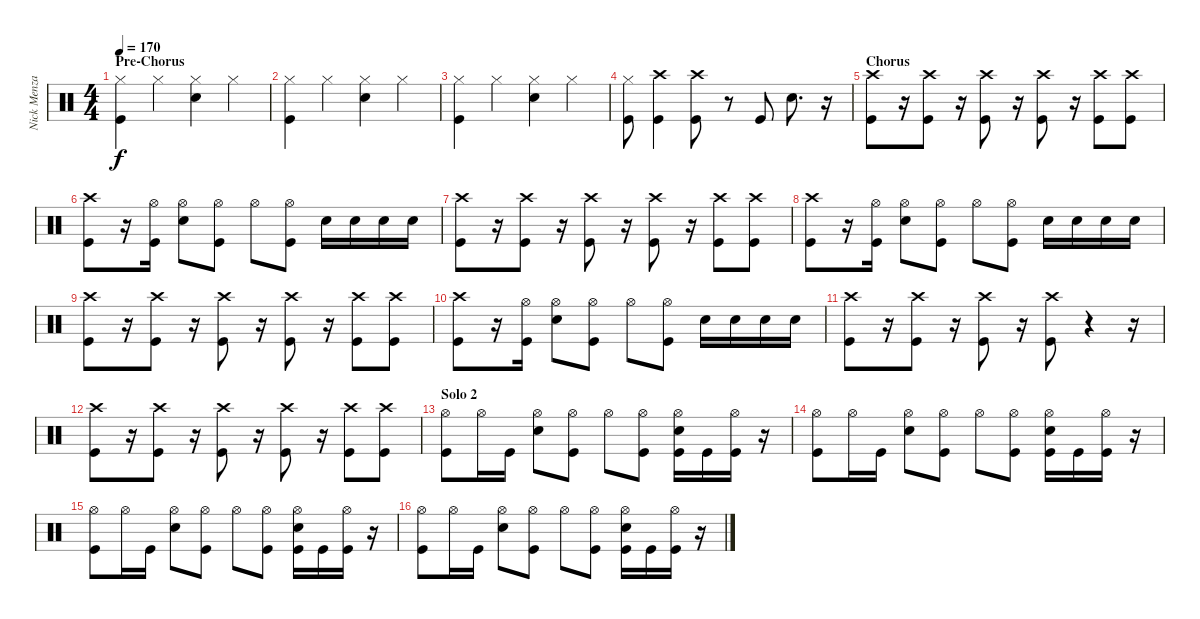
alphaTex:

\track ("Nick Menza" "Nick Menza") {instrument percussion}
\staff {score}
\articulation defaults
\ts (4 4)
\section ("" "Pre-Chorus")
\tempo 170
\clef neutral
\ks c
("Hi-Hat (closed)" "Kick (hit)").4{dy f} "Hi-Hat (closed)".4 ("Hi-Hat (closed)" "Snare (hit) 2").4 "Hi-Hat (closed)".4 |
("Hi-Hat (closed)" "Kick (hit)").4 "Hi-Hat (closed)".4 ("Hi-Hat (closed)" "Snare (hit) 2").4 "Hi-Hat (closed)".4 |
("Hi-Hat (closed)" "Kick (hit)").4 "Hi-Hat (closed)".4 ("Hi-Hat (closed)" "Snare (hit) 2").4 "Hi-Hat (closed)".4 |
("Hi-Hat (closed)" "Kick (hit)").8 ("Crash high (hit)" "Kick (hit)").4 ("Crash high (hit)" "Kick (hit)").8 r.8 "Kick (hit)".8 "Snare (hit) 2".8{d} r.16 |
\section ("" "Chorus")
("Crash high (hit)" "Kick (hit)").8 r.16 ("Crash high (hit)" "Kick (hit)").8 r.16 ("Crash high (hit)" "Kick (hit)").8 r.16 ("Crash high (hit)" "Kick (hit)").8 r.16 ("Crash high (hit)" "Kick (hit)").8 ("Crash high (hit)" "Kick (hit)").8 |
("Crash high (hit)" "Kick (hit)").8 r.16 ("Hi-Hat (open)" "Kick (hit)").16 ("Hi-Hat (open)" "Snare (hit) 2").8 ("Hi-Hat (open)" "Kick (hit)").8 "Hi-Hat (open)".8 ("Hi-Hat (open)" "Kick (hit)").8 "Snare (hit) 2".16 "Snare (hit) 2".16 "Snare (hit) 2".16 "Snare (hit) 2".16 |
("Crash high (hit)" "Kick (hit)").8 r.16 ("Crash high (hit)" "Kick (hit)").8 r.16 ("Crash high (hit)" "Kick (hit)").8 r.16 ("Crash high (hit)" "Kick (hit)").8 r.16 ("Crash high (hit)" "Kick (hit)").8 ("Crash high (hit)" "Kick (hit)").8 |
("Crash high (hit)" "Kick (hit)").8 r.16 ("Hi-Hat (open)" "Kick (hit)").16 ("Hi-Hat (open)" "Snare (hit) 2").8 ("Hi-Hat (open)" "Kick (hit)").8 "Hi-Hat (open)".8 ("Hi-Hat (open)" "Kick (hit)").8 "Snare (hit) 2".16 "Snare (hit) 2".16 "Snare (hit) 2".16 "Snare (hit) 2".16 |
("Crash high (hit)" "Kick (hit)").8 r.16 ("Crash high (hit)" "Kick (hit)").8 r.16 ("Crash high (hit)" "Kick (hit)").8 r.16 ("Crash high (hit)" "Kick (hit)").8 r.16 ("Crash high (hit)" "Kick (hit)").8 ("Crash high (hit)" "Kick (hit)").8 |
("Crash high (hit)" "Kick (hit)").8 r.16 ("Hi-Hat (open)" "Kick (hit)").16 ("Hi-Hat (open)" "Snare (hit) 2").8 ("Hi-Hat (open)" "Kick (hit)").8 "Hi-Hat (open)".8 ("Hi-Hat (open)" "Kick (hit)").8 "Snare (hit) 2".16 "Snare (hit) 2".16 "Snare (hit) 2".16 "Snare (hit) 2".16 |
("Crash high (hit)" "Kick (hit)").8 r.16 ("Crash high (hit)" "Kick (hit)").8 r.16 ("Crash high (hit)" "Kick (hit)").8 r.16 ("Crash high (hit)" "Kick (hit)").8 r.4 r.16 |
("Crash high (hit)" "Kick (hit)").8 r.16 ("Crash high (hit)" "Kick (hit)").8 r.16 ("Crash high (hit)" "Kick (hit)").8 r.16 ("Crash high (hit)" "Kick (hit)").8 r.16 ("Crash high (hit)" "Kick (hit)").8 ("Crash high (hit)" "Kick (hit)").8 |
\section ("" "Solo 2")
("Hi-Hat (open)" "Kick (hit)").8 "Hi-Hat (open)".16 "Kick (hit)".16 ("Hi-Hat (open)" "Snare (hit) 2").8 ("Hi-Hat (open)" "Kick (hit)").8 "Hi-Hat (open)".8 ("Hi-Hat (open)" "Kick (hit)").8 ("Hi-Hat (open)" "Snare (hit) 2" "Kick (hit)").16 "Kick (hit)".16 ("Hi-Hat (open)" "Kick (hit)").16 r.16 |
("Hi-Hat (open)" "Kick (hit)").8 "Hi-Hat (open)".16 "Kick (hit)".16 ("Hi-Hat (open)" "Snare (hit) 2").8 ("Hi-Hat (open)" "Kick (hit)").8 "Hi-Hat (open)".8 ("Hi-Hat (open)" "Kick (hit)").8 ("Hi-Hat (open)" "Snare (hit) 2" "Kick (hit)").16 "Kick (hit)".16 ("Hi-Hat (open)" "Kick (hit)").16 r.16 |
("Hi-Hat (open)" "Kick (hit)").8 "Hi-Hat (open)".16 "Kick (hit)".16 ("Hi-Hat (open)" "Snare (hit) 2").8 ("Hi-Hat (open)" "Kick (hit)").8 "Hi-Hat (open)".8 ("Hi-Hat (open)" "Kick (hit)").8 ("Hi-Hat (open)" "Snare (hit) 2" "Kick (hit)").16 "Kick (hit)".16 ("Hi-Hat (open)" "Kick (hit)").16 r.16 |
("Hi-Hat (open)" "Kick (hit)").8 "Hi-Hat (open)".16 "Kick (hit)".16 ("Hi-Hat (open)" "Snare (hit) 2").8 ("Hi-Hat (open)" "Kick (hit)").8 "Hi-Hat (open)".8 ("Hi-Hat (open)" "Kick (hit)").8 ("Hi-Hat (open)" "Snare (hit) 2" "Kick (hit)").16 "Kick (hit)".16 ("Hi-Hat (open)" "Kick (hit)").16 r.16
